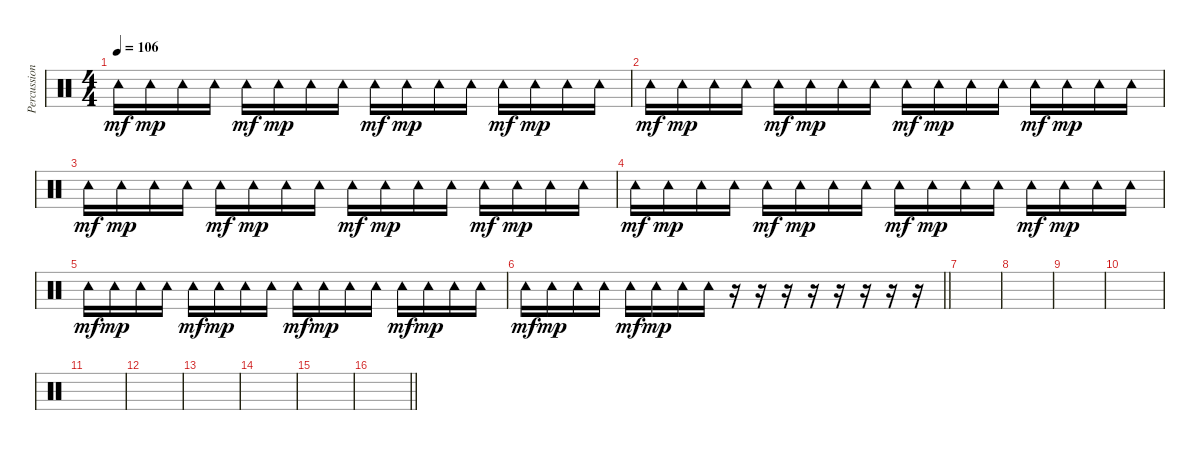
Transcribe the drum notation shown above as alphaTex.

\track ("Percussion" "Percussion") {instrument percussion}
\staff {score}
\articulation defaults
\ts (4 4)
\tempo 106
\clef neutral
\ks c "Tambourine (hit)".16{dy mf} "Tambourine (hit)".16{dy mp} "Tambourine (hit)".16 "Tambourine (hit)".16 "Tambourine (hit)".16{dy mf} "Tambourine (hit)".16{dy mp} "Tambourine (hit)".16 "Tambourine (hit)".16 "Tambourine (hit)".16{dy mf} "Tambourine (hit)".16{dy mp} "Tambourine (hit)".16 "Tambourine (hit)".16 "Tambourine (hit)".16{dy mf} "Tambourine (hit)".16{dy mp} "Tambourine (hit)".16 "Tambourine (hit)".16
|
"Tambourine (hit)".16{dy mf} "Tambourine (hit)".16{dy mp} "Tambourine (hit)".16 "Tambourine (hit)".16 "Tambourine (hit)".16{dy mf} "Tambourine (hit)".16{dy mp} "Tambourine (hit)".16 "Tambourine (hit)".16 "Tambourine (hit)".16{dy mf} "Tambourine (hit)".16{dy mp} "Tambourine (hit)".16 "Tambourine (hit)".16 "Tambourine (hit)".16{dy mf} "Tambourine (hit)".16{dy mp} "Tambourine (hit)".16 "Tambourine (hit)".16 |
"Tambourine (hit)".16{dy mf} "Tambourine (hit)".16{dy mp} "Tambourine (hit)".16 "Tambourine (hit)".16 "Tambourine (hit)".16{dy mf} "Tambourine (hit)".16{dy mp} "Tambourine (hit)".16 "Tambourine (hit)".16 "Tambourine (hit)".16{dy mf} "Tambourine (hit)".16{dy mp} "Tambourine (hit)".16 "Tambourine (hit)".16 "Tambourine (hit)".16{dy mf} "Tambourine (hit)".16{dy mp} "Tambourine (hit)".16 "Tambourine (hit)".16 |
"Tambourine (hit)".16{dy mf} "Tambourine (hit)".16{dy mp} "Tambourine (hit)".16 "Tambourine (hit)".16 "Tambourine (hit)".16{dy mf} "Tambourine (hit)".16{dy mp} "Tambourine (hit)".16 "Tambourine (hit)".16 "Tambourine (hit)".16{dy mf} "Tambourine (hit)".16{dy mp} "Tambourine (hit)".16 "Tambourine (hit)".16 "Tambourine (hit)".16{dy mf} "Tambourine (hit)".16{dy mp} "Tambourine (hit)".16 "Tambourine (hit)".16 |
"Tambourine (hit)".16{dy mf} "Tambourine (hit)".16{dy mp} "Tambourine (hit)".16 "Tambourine (hit)".16 "Tambourine (hit)".16{dy mf} "Tambourine (hit)".16{dy mp} "Tambourine (hit)".16 "Tambourine (hit)".16 "Tambourine (hit)".16{dy mf} "Tambourine (hit)".16{dy mp} "Tambourine (hit)".16 "Tambourine (hit)".16 "Tambourine (hit)".16{dy mf} "Tambourine (hit)".16{dy mp} "Tambourine (hit)".16 "Tambourine (hit)".16 |
\barLineRight lightlight "Tambourine (hit)".16{dy mf} "Tambourine (hit)".16{dy mp} "Tambourine (hit)".16 "Tambourine (hit)".16 "Tambourine (hit)".16{dy mf} "Tambourine (hit)".16{dy mp} "Tambourine (hit)".16 "Tambourine (hit)".16
r.16 r.16 r.16 r.16 r.16 r.16 r.16 r.16 |
|
|
|
|
|
|
|
|
|
\barLineRight lightlight
